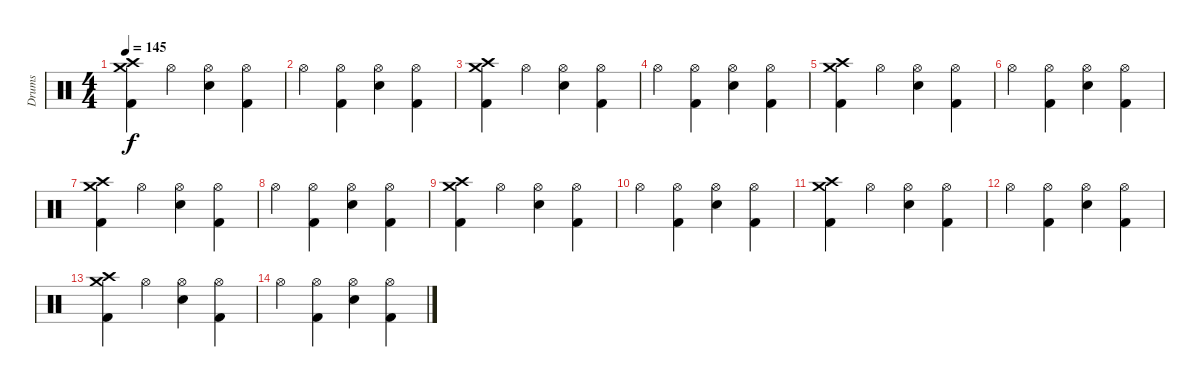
\track ("Drums" "Drums") {instrument percussion}
\staff {score}
\articulation defaults
\ts (4 4)
\tempo 145
\clef neutral
\ks c
("Crash medium (hit)" "Crash high (hit)" "Kick (hit) 2").4{dy f} "Hi-Hat (open)".4 ("Hi-Hat (open)" "Snare (hit) 2").4 ("Hi-Hat (open)" "Kick (hit) 2").4 |
"Hi-Hat (open)".4 ("Hi-Hat (open)" "Kick (hit) 2").4 ("Hi-Hat (open)" "Snare (hit) 2").4 ("Hi-Hat (open)" "Kick (hit) 2").4 |
("Crash medium (hit)" "Crash high (hit)" "Kick (hit) 2").4 "Hi-Hat (open)".4 ("Hi-Hat (open)" "Snare (hit) 2").4 ("Hi-Hat (open)" "Kick (hit) 2").4 |
"Hi-Hat (open)".4 ("Hi-Hat (open)" "Kick (hit) 2").4 ("Hi-Hat (open)" "Snare (hit) 2").4 ("Hi-Hat (open)" "Kick (hit) 2").4 |
("Crash medium (hit)" "Crash high (hit)" "Kick (hit) 2").4 "Hi-Hat (open)".4 ("Hi-Hat (open)" "Snare (hit) 2").4 ("Hi-Hat (open)" "Kick (hit) 2").4 |
"Hi-Hat (open)".4 ("Hi-Hat (open)" "Kick (hit) 2").4 ("Hi-Hat (open)" "Snare (hit) 2").4 ("Hi-Hat (open)" "Kick (hit) 2").4 |
("Crash medium (hit)" "Crash high (hit)" "Kick (hit) 2").4 "Hi-Hat (open)".4 ("Hi-Hat (open)" "Snare (hit) 2").4 ("Hi-Hat (open)" "Kick (hit) 2").4 |
"Hi-Hat (open)".4 ("Hi-Hat (open)" "Kick (hit) 2").4 ("Hi-Hat (open)" "Snare (hit) 2").4 ("Hi-Hat (open)" "Kick (hit) 2").4 |
("Crash medium (hit)" "Crash high (hit)" "Kick (hit) 2").4 "Hi-Hat (open)".4 ("Hi-Hat (open)" "Snare (hit) 2").4 ("Hi-Hat (open)" "Kick (hit) 2").4 |
"Hi-Hat (open)".4 ("Hi-Hat (open)" "Kick (hit) 2").4 ("Hi-Hat (open)" "Snare (hit) 2").4 ("Hi-Hat (open)" "Kick (hit) 2").4 |
("Crash medium (hit)" "Crash high (hit)" "Kick (hit) 2").4 "Hi-Hat (open)".4 ("Hi-Hat (open)" "Snare (hit) 2").4 ("Hi-Hat (open)" "Kick (hit) 2").4 |
"Hi-Hat (open)".4 ("Hi-Hat (open)" "Kick (hit) 2").4 ("Hi-Hat (open)" "Snare (hit) 2").4 ("Hi-Hat (open)" "Kick (hit) 2").4 |
("Crash medium (hit)" "Crash high (hit)" "Kick (hit) 2").4 "Hi-Hat (open)".4 ("Hi-Hat (open)" "Snare (hit) 2").4 ("Hi-Hat (open)" "Kick (hit) 2").4 |
"Hi-Hat (open)".4 ("Hi-Hat (open)" "Kick (hit) 2").4 ("Hi-Hat (open)" "Snare (hit) 2").4 ("Hi-Hat (open)" "Kick (hit) 2").4
